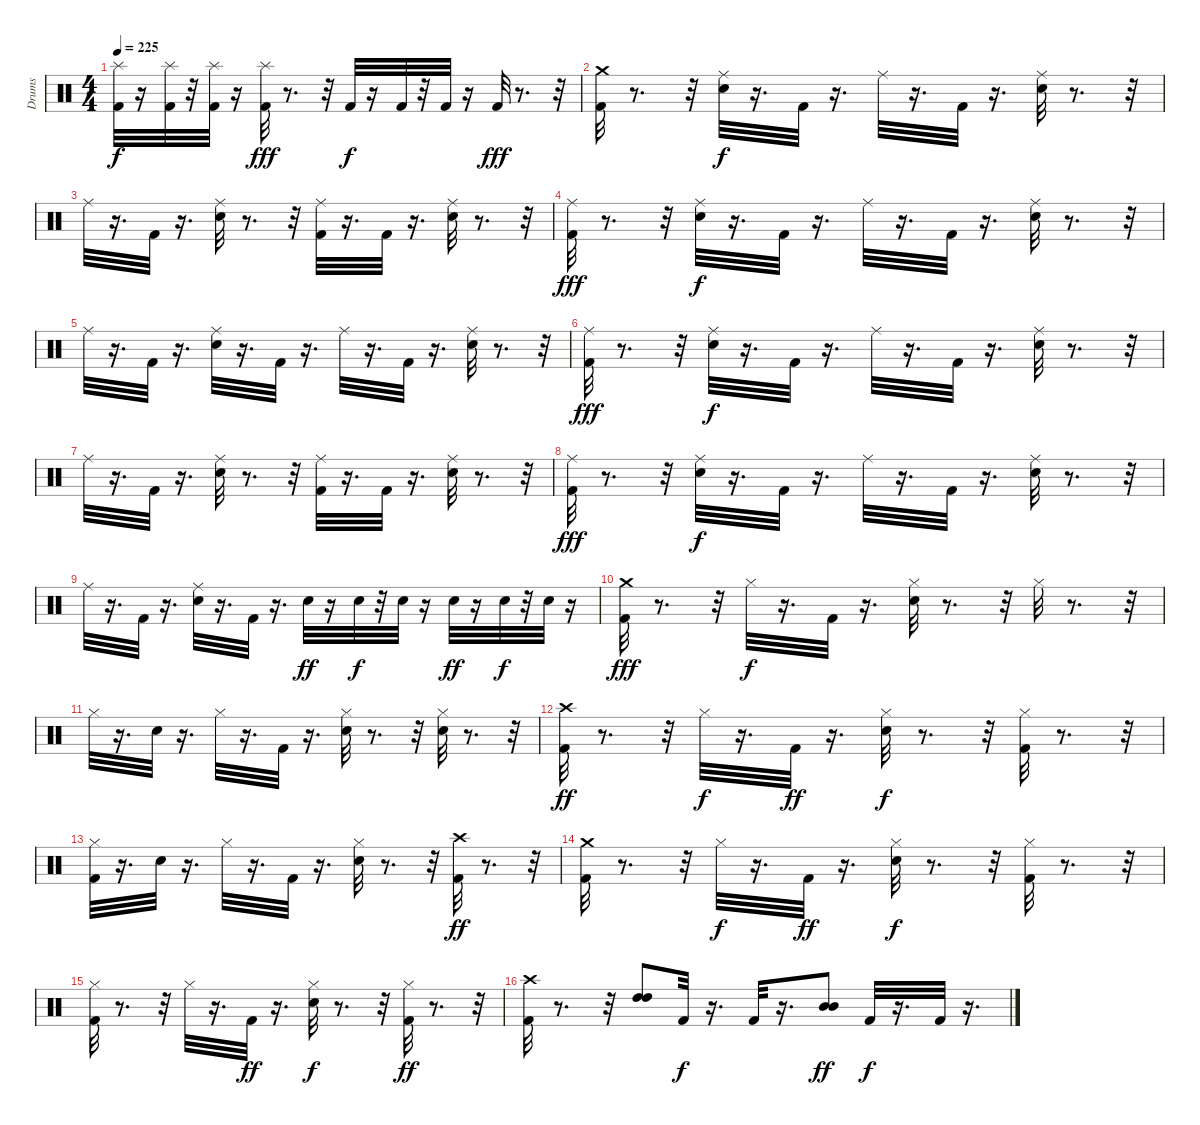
\track ("Drums" "Drums") {instrument percussion}
\staff {score}
\articulation defaults
\ts (4 4)
\tempo 225
\clef neutral
\ks c
("Splash (hit)" "Kick (hit) 2").32{dy f} r.16 ("Splash (hit)" "Kick (hit) 2").32 r.32 ("Splash (hit)" "Kick (hit) 2").32 r.16 ("Splash (hit)" "Kick (hit) 2").32{dy fff} r.8{d} r.32 "Kick (hit) 2".32{dy f} r.16 "Kick (hit) 2".32 r.32 "Kick (hit) 2".32 r.16 "Kick (hit) 2".32{dy fff} r.8{d} r.32 |
("Crash medium (hit)" "Kick (hit) 2").32 r.8{d} r.32 ("Ride (middle)" "Snare (hit) 2").32{dy f} r.16{d} "Kick (hit) 2".32 r.16{d} "Ride (middle)".32 r.16{d} "Kick (hit) 2".32 r.16{d} ("Ride (middle)" "Snare (hit) 2").32 r.8{d} r.32 |
"Ride (middle)".32 r.16{d} "Kick (hit) 2".32 r.16{d} ("Ride (middle)" "Snare (hit) 2").32 r.8{d} r.32 ("Ride (middle)" "Kick (hit) 2").32 r.16{d} "Kick (hit) 2".32 r.16{d} ("Ride (middle)" "Snare (hit) 2").32 r.8{d} r.32 |
("Ride (middle)" "Kick (hit) 2").32{dy fff} r.8{d} r.32 ("Ride (middle)" "Snare (hit) 2").32{dy f} r.16{d} "Kick (hit) 2".32 r.16{d} "Ride (middle)".32 r.16{d} "Kick (hit) 2".32 r.16{d} ("Ride (middle)" "Snare (hit) 2").32 r.8{d} r.32 |
"Ride (middle)".32 r.16{d} "Kick (hit) 2".32 r.16{d} ("Ride (middle)" "Snare (hit) 2").32 r.16{d} "Kick (hit) 2".32 r.16{d} "Ride (middle)".32 r.16{d} "Kick (hit) 2".32 r.16{d} ("Ride (middle)" "Snare (hit) 2").32 r.8{d} r.32 |
("Ride (middle)" "Kick (hit) 2").32{dy fff} r.8{d} r.32 ("Ride (middle)" "Snare (hit) 2").32{dy f} r.16{d} "Kick (hit) 2".32 r.16{d} "Ride (middle)".32 r.16{d} "Kick (hit) 2".32 r.16{d} ("Ride (middle)" "Snare (hit) 2").32 r.8{d} r.32 |
"Ride (middle)".32 r.16{d} "Kick (hit) 2".32 r.16{d} ("Ride (middle)" "Snare (hit) 2").32 r.8{d} r.32 ("Ride (middle)" "Kick (hit) 2").32 r.16{d} "Kick (hit) 2".32 r.16{d} ("Ride (middle)" "Snare (hit) 2").32 r.8{d} r.32 |
("Ride (middle)" "Kick (hit) 2").32{dy fff} r.8{d} r.32 ("Ride (middle)" "Snare (hit) 2").32{dy f} r.16{d} "Kick (hit) 2".32 r.16{d} "Ride (middle)".32 r.16{d} "Kick (hit) 2".32 r.16{d} ("Ride (middle)" "Snare (hit) 2").32 r.8{d} r.32 |
"Ride (middle)".32 r.16{d} "Kick (hit) 2".32 r.16{d} ("Ride (middle)" "Snare (hit) 2").32 r.16{d} "Kick (hit) 2".32 r.16{d} "Snare (hit) 2".32{dy ff} r.16 "Snare (hit) 2".32{dy f} r.32 "Snare (hit) 2".32 r.16 "Snare (hit) 2".32{dy ff} r.16 "Snare (hit) 2".32{dy f} r.32 "Snare (hit) 2".32 r.16 |
("Kick (hit) 2" "Crash medium (hit)").32{dy fff} r.8{d} r.32 "Hi-Hat (closed)".32{dy f} r.16{d} "Kick (hit) 2".32 r.16{d} ("Hi-Hat (closed)" "Snare (hit) 2").32 r.8{d} r.32 "Hi-Hat (closed)".32 r.8{d} r.32 |
"Hi-Hat (closed)".32 r.16{d} "Snare (hit) 2".32 r.16{d} "Hi-Hat (closed)".32 r.16{d} "Kick (hit) 2".32 r.16{d} ("Hi-Hat (closed)" "Snare (hit) 2").32 r.8{d} r.32 ("Hi-Hat (closed)" "Snare (hit) 2").32 r.8{d} r.32 |
("Crash high (hit)" "Kick (hit) 2").32{dy ff} r.8{d} r.32 "Hi-Hat (closed)".32{dy f} r.16{d} "Kick (hit) 2".32{dy ff} r.16{d} ("Hi-Hat (closed)" "Snare (hit) 2").32{dy f} r.8{d} r.32 ("Kick (hit) 2" "Hi-Hat (closed)").32 r.8{d} r.32 |
("Kick (hit) 2" "Hi-Hat (closed)").32 r.16{d} "Snare (hit) 2".32 r.16{d} "Hi-Hat (closed)".32 r.16{d} "Kick (hit) 2".32 r.16{d} ("Hi-Hat (closed)" "Snare (hit) 2").32 r.8{d} r.32 ("Kick (hit) 2" "Crash high (hit)").32{dy ff} r.8{d} r.32 |
("Kick (hit) 2" "Crash medium (hit)").32 r.8{d} r.32 "Hi-Hat (closed)".32{dy f} r.16{d} "Kick (hit) 2".32{dy ff} r.16{d} ("Snare (hit) 2" "Hi-Hat (closed)").32{dy f} r.8{d} r.32 ("Kick (hit) 2" "Hi-Hat (closed)").32 r.8{d} r.32 |
("Kick (hit) 2" "Hi-Hat (closed)").32 r.8{d} r.32 "Hi-Hat (closed)".32 r.16{d} "Kick (hit) 2".32{dy ff} r.16{d} ("Snare (hit) 2" "Hi-Hat (closed)").32{dy f} r.8{d} r.32 ("Hi-Hat (closed)" "Kick (hit) 2").32{dy ff} r.8{d} r.32 |
("Crash high (hit)" "Kick (hit) 2").32 r.8{d} r.32 ("High Tom (hit)" "High Tom (hit)").8 "Kick (hit) 2".32{dy f} r.16{d} "Kick (hit) 2".32 r.16{d} ("Mid Tom (hit)" "Mid Tom (hit)").8{dy ff} "Kick (hit) 2".32{dy f} r.16{d} "Kick (hit) 2".32 r.16{d}
